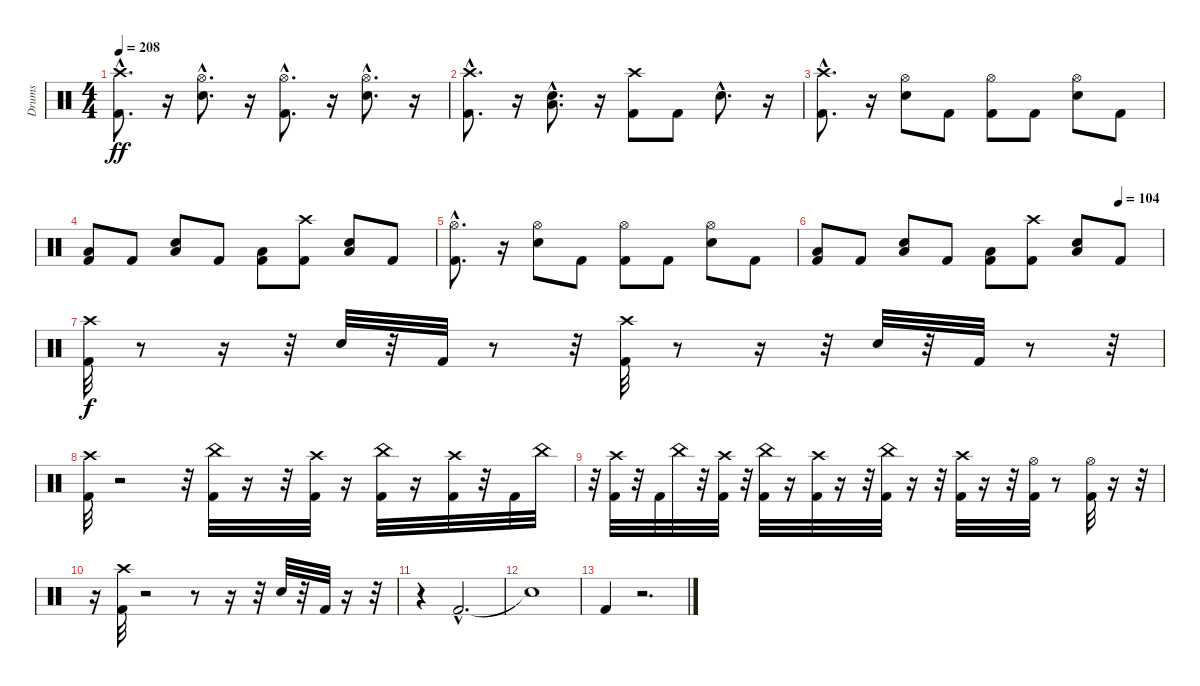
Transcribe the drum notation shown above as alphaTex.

\track ("Drums" "Drums") {instrument percussion}
\staff {score}
\articulation defaults
\ts (4 4)
\tempo 208
\clef neutral
\ks c
("Kick (hit) 2"{hac} "Crash high (hit)"{hac}).8{d dy ff} r.16 ("Snare (hit) 2"{hac} "Hi-Hat (open)"{hac}).8{d} r.16 ("Kick (hit) 2"{hac} "Hi-Hat (open)"{hac}).8{d} r.16 ("Snare (hit) 2"{hac} "Hi-Hat (open)"{hac}).8{d} r.16 |
("Kick (hit) 2"{hac} "Crash high (hit)"{hac}).8{d} r.16 ("Snare (hit) 2"{hac} "Low Tom (hit)"{hac}).8{d} r.16 ("Kick (hit) 2" "Crash high (hit)").8 "Kick (hit) 2".8 "Snare (hit) 2"{hac}.8{d} r.16 |
("Kick (hit) 2"{hac} "Crash high (hit)"{hac}).8{d} r.16 ("Snare (hit) 2" "Hi-Hat (open)").8 "Kick (hit) 2".8 ("Kick (hit) 2" "Hi-Hat (open)").8 "Kick (hit) 2".8 ("Snare (hit) 2" "Hi-Hat (open)").8 "Kick (hit) 2".8 |
("Kick (hit) 2" "Low Tom (hit)").8 "Kick (hit) 2".8 ("Snare (hit) 2" "Low Tom (hit)").8 "Kick (hit) 2".8 ("Kick (hit) 2" "Low Tom (hit)").8 ("Kick (hit) 2" "Crash high (hit)").8 ("Snare (hit) 2" "Low Tom (hit)").8 "Kick (hit) 2".8 |
("Kick (hit) 2"{hac} "Hi-Hat (open)"{hac}).8{d} r.16 ("Snare (hit) 2" "Hi-Hat (open)").8 "Kick (hit) 2".8 ("Kick (hit) 2" "Hi-Hat (open)").8 "Kick (hit) 2".8 ("Snare (hit) 2" "Hi-Hat (open)").8 "Kick (hit) 2".8 |
\tempo (104 0.875)
("Kick (hit) 2" "Low Tom (hit)").8 "Kick (hit) 2".8 ("Snare (hit) 2" "Low Tom (hit)").8 "Kick (hit) 2".8 ("Kick (hit) 2" "Low Tom (hit)").8 ("Kick (hit) 2" "Crash high (hit)").8 ("Snare (hit) 2" "Low Tom (hit)").8 "Kick (hit) 2".8 |
("Crash high (hit)" "Kick (hit) 2").32{dy f} r.8 r.16 r.32 "Snare (hit) 2".32 r.32 "Kick (hit) 2".32 r.8 r.32 ("Crash high (hit)" "Kick (hit) 2").32 r.8 r.16 r.32 "Snare (hit) 2".32 r.32 "Kick (hit) 2".32 r.8 r.32 |
("Kick (hit) 2" "Crash high (hit)").32 r.2 r.32 ("Kick (hit) 2" "China (hit)").32 r.16 r.32 ("Kick (hit) 2" "Crash high (hit)").32 r.16 ("China (hit)" "Kick (hit) 2").32 r.16 ("Kick (hit) 2" "Crash high (hit)").32 r.32 "Kick (hit) 2".32 "China (hit)".32 |
r.32 ("Kick (hit) 2" "Crash high (hit)").32 r.32 "Kick (hit) 2".32 "China (hit)".32 r.32 ("Kick (hit) 2" "Crash high (hit)").32 r.32 ("Kick (hit) 2" "China (hit)").32 r.16 ("Crash high (hit)" "Kick (hit) 2").32 r.16 r.32 ("Kick (hit) 2" "China (hit)").32 r.16 r.32 ("Crash high (hit)" "Kick (hit) 2").32 r.16 r.32 ("Kick (hit) 2" "Hi-Hat (open)").32 r.8 ("Hi-Hat (open)" "Kick (hit) 2").32 r.16 r.32 |
r.16 ("Crash high (hit)" "Kick (hit) 2").32 r.2 r.8 r.16 r.32 "Snare (hit) 2".32 r.32 "Kick (hit) 2".32 r.16 r.32 |
r.4 "Kick (hit) 2"{hac}.2{d} |
"Snare (hit)"{t}.1 |
"Kick (hit) 2".4 r.2{d}
